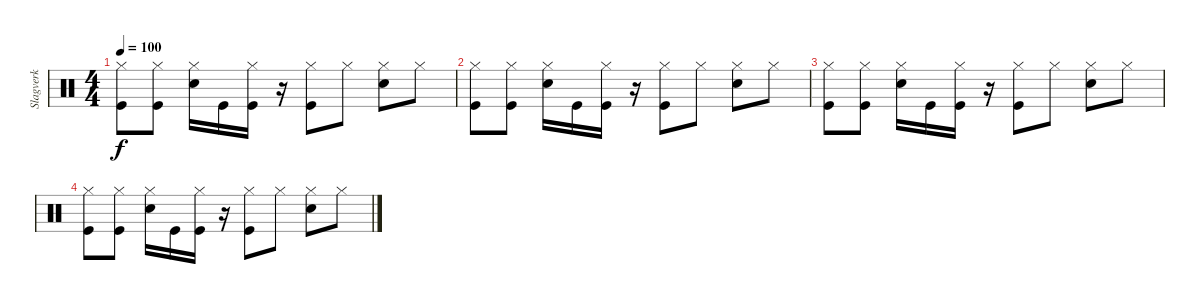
\track ("Slagverk" "Slagverk") {instrument percussion}
\staff {score}
\articulation defaults
\ts (4 4)
\tempo 100
\clef neutral
\ks c
("Hi-Hat (closed)" "Kick (hit)").8{dy f} ("Hi-Hat (closed)" "Kick (hit)").8 ("Hi-Hat (closed)" "Snare (hit) 2").16 "Kick (hit)".16 ("Hi-Hat (closed)" "Kick (hit)").16 r.16 ("Hi-Hat (closed)" "Kick (hit)").8 "Hi-Hat (closed)".8 ("Hi-Hat (closed)" "Snare (hit) 2").8 "Hi-Hat (closed)".8 |
("Hi-Hat (closed)" "Kick (hit)").8 ("Hi-Hat (closed)" "Kick (hit)").8 ("Hi-Hat (closed)" "Snare (hit) 2").16 "Kick (hit)".16 ("Hi-Hat (closed)" "Kick (hit)").16 r.16 ("Hi-Hat (closed)" "Kick (hit)").8 "Hi-Hat (closed)".8 ("Hi-Hat (closed)" "Snare (hit) 2").8 "Hi-Hat (closed)".8 |
("Hi-Hat (closed)" "Kick (hit)").8 ("Hi-Hat (closed)" "Kick (hit)").8 ("Hi-Hat (closed)" "Snare (hit) 2").16 "Kick (hit)".16 ("Hi-Hat (closed)" "Kick (hit)").16 r.16 ("Hi-Hat (closed)" "Kick (hit)").8 "Hi-Hat (closed)".8 ("Hi-Hat (closed)" "Snare (hit) 2").8 "Hi-Hat (closed)".8 |
("Hi-Hat (closed)" "Kick (hit)").8 ("Hi-Hat (closed)" "Kick (hit)").8 ("Hi-Hat (closed)" "Snare (hit) 2").16 "Kick (hit)".16 ("Hi-Hat (closed)" "Kick (hit)").16 r.16 ("Hi-Hat (closed)" "Kick (hit)").8 "Hi-Hat (closed)".8 ("Hi-Hat (closed)" "Snare (hit) 2").8 "Hi-Hat (closed)".8
